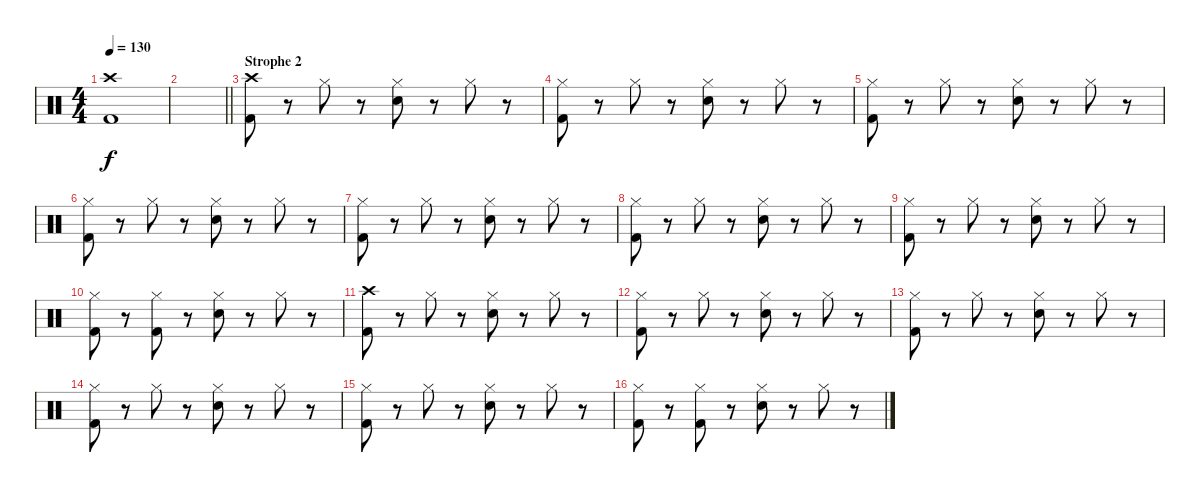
\track "" {instrument percussion}
\staff {score}
\articulation defaults
\ts (4 4)
\tempo 130
\clef neutral
\ks c
("Crash high (hit)" "Kick (hit) 2").1{dy f} |
\barLineRight lightlight
|
\section ("" "Strophe 2")
("Crash high (hit)" "Kick (hit) 2").8 r.8 "Hi-Hat (closed)".8 r.8 ("Hi-Hat (closed)" "Electric Snare (hit)").8 r.8 "Hi-Hat (closed)".8 r.8 |
("Hi-Hat (closed)" "Kick (hit) 2").8 r.8 "Hi-Hat (closed)".8 r.8 ("Hi-Hat (closed)" "Electric Snare (hit)").8 r.8 "Hi-Hat (closed)".8 r.8 |
("Hi-Hat (closed)" "Kick (hit) 2").8 r.8 "Hi-Hat (closed)".8 r.8 ("Hi-Hat (closed)" "Electric Snare (hit)").8 r.8 "Hi-Hat (closed)".8 r.8 |
("Hi-Hat (closed)" "Kick (hit) 2").8 r.8 "Hi-Hat (closed)".8 r.8 ("Hi-Hat (closed)" "Electric Snare (hit)").8 r.8 "Hi-Hat (closed)".8 r.8 |
("Hi-Hat (closed)" "Kick (hit) 2").8 r.8 "Hi-Hat (closed)".8 r.8 ("Hi-Hat (closed)" "Electric Snare (hit)").8 r.8 "Hi-Hat (closed)".8 r.8 |
("Hi-Hat (closed)" "Kick (hit) 2").8 r.8 "Hi-Hat (closed)".8 r.8 ("Hi-Hat (closed)" "Electric Snare (hit)").8 r.8 "Hi-Hat (closed)".8 r.8 |
("Hi-Hat (closed)" "Kick (hit) 2").8 r.8 "Hi-Hat (closed)".8 r.8 ("Hi-Hat (closed)" "Electric Snare (hit)").8 r.8 "Hi-Hat (closed)".8 r.8 |
("Hi-Hat (closed)" "Kick (hit) 2").8 r.8 ("Hi-Hat (closed)" "Kick (hit) 2").8 r.8 ("Hi-Hat (closed)" "Electric Snare (hit)").8 r.8 "Hi-Hat (closed)".8 r.8 |
("Crash high (hit)" "Kick (hit) 2").8 r.8 "Hi-Hat (closed)".8 r.8 ("Hi-Hat (closed)" "Electric Snare (hit)").8 r.8 "Hi-Hat (closed)".8 r.8 |
("Hi-Hat (closed)" "Kick (hit) 2").8 r.8 "Hi-Hat (closed)".8 r.8 ("Hi-Hat (closed)" "Electric Snare (hit)").8 r.8 "Hi-Hat (closed)".8 r.8 |
("Hi-Hat (closed)" "Kick (hit) 2").8 r.8 "Hi-Hat (closed)".8 r.8 ("Hi-Hat (closed)" "Electric Snare (hit)").8 r.8 "Hi-Hat (closed)".8 r.8 |
("Hi-Hat (closed)" "Kick (hit) 2").8 r.8 "Hi-Hat (closed)".8 r.8 ("Hi-Hat (closed)" "Electric Snare (hit)").8 r.8 "Hi-Hat (closed)".8 r.8 |
("Hi-Hat (closed)" "Kick (hit) 2").8 r.8 "Hi-Hat (closed)".8 r.8 ("Hi-Hat (closed)" "Electric Snare (hit)").8 r.8 "Hi-Hat (closed)".8 r.8 |
("Hi-Hat (closed)" "Kick (hit) 2").8 r.8 ("Hi-Hat (closed)" "Kick (hit) 2").8 r.8 ("Hi-Hat (closed)" "Electric Snare (hit)").8 r.8 "Hi-Hat (closed)".8 r.8
